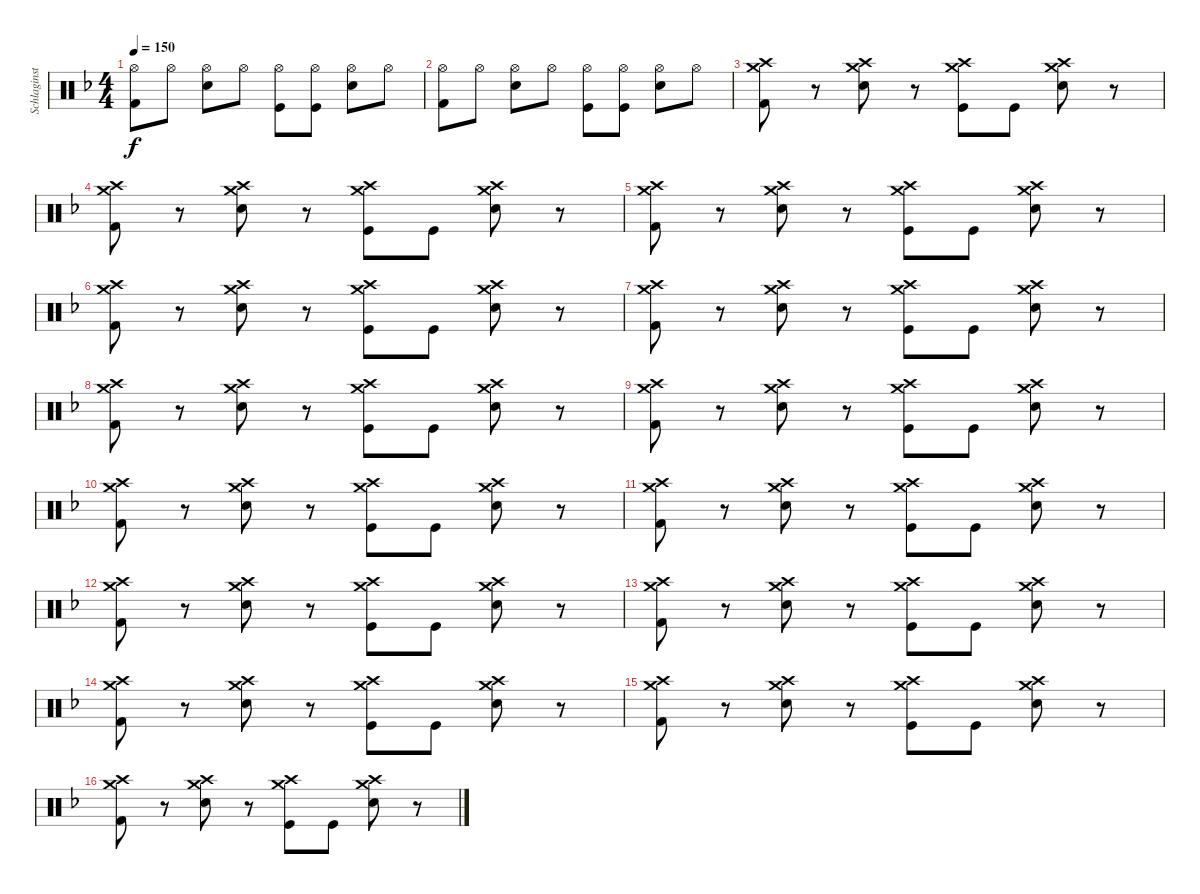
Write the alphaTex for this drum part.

\track ("Schlaginstrumente - Auswahl" "Schlaginst") {instrument percussion}
\staff {score}
\articulation defaults
\ts (4 4)
\tempo 150
\clef neutral
\ks f
("Hi-Hat (open)" "Kick (hit) 2").8{dy f} "Hi-Hat (open)".8 ("Hi-Hat (open)" "Snare (hit) 2").8 "Hi-Hat (open)".8 ("Hi-Hat (open)" "Kick (hit)").8 ("Kick (hit)" "Hi-Hat (open)").8 ("Hi-Hat (open)" "Snare (hit) 2").8 "Hi-Hat (open)".8 |
("Hi-Hat (open)" "Kick (hit) 2").8 "Hi-Hat (open)".8 ("Hi-Hat (open)" "Snare (hit) 2").8 "Hi-Hat (open)".8 ("Hi-Hat (open)" "Kick (hit)").8 ("Kick (hit)" "Hi-Hat (open)").8 ("Hi-Hat (open)" "Snare (hit) 2").8 "Hi-Hat (open)".8 |
("Crash medium (hit)" "Kick (hit) 2" "Crash high (hit)").8 r.8 ("Crash high (hit)" "Snare (hit) 2" "Crash medium (hit)").8 r.8 ("Crash medium (hit)" "Kick (hit)" "Crash high (hit)").8 "Kick (hit)".8 ("Crash high (hit)" "Snare (hit) 2" "Crash medium (hit)").8 r.8 |
("Crash medium (hit)" "Kick (hit) 2" "Crash high (hit)").8 r.8 ("Crash high (hit)" "Snare (hit) 2" "Crash medium (hit)").8 r.8 ("Crash medium (hit)" "Kick (hit)" "Crash high (hit)").8 "Kick (hit)".8 ("Crash high (hit)" "Snare (hit) 2" "Crash medium (hit)").8 r.8 |
("Crash medium (hit)" "Kick (hit) 2" "Crash high (hit)").8 r.8 ("Crash high (hit)" "Snare (hit) 2" "Crash medium (hit)").8 r.8 ("Crash medium (hit)" "Kick (hit)" "Crash high (hit)").8 "Kick (hit)".8 ("Crash high (hit)" "Snare (hit) 2" "Crash medium (hit)").8 r.8 |
("Crash medium (hit)" "Kick (hit) 2" "Crash high (hit)").8 r.8 ("Crash high (hit)" "Snare (hit) 2" "Crash medium (hit)").8 r.8 ("Crash medium (hit)" "Kick (hit)" "Crash high (hit)").8 "Kick (hit)".8 ("Crash high (hit)" "Snare (hit) 2" "Crash medium (hit)").8 r.8 |
("Crash medium (hit)" "Kick (hit) 2" "Crash high (hit)").8 r.8 ("Crash high (hit)" "Snare (hit) 2" "Crash medium (hit)").8 r.8 ("Crash medium (hit)" "Kick (hit)" "Crash high (hit)").8 "Kick (hit)".8 ("Crash high (hit)" "Snare (hit) 2" "Crash medium (hit)").8 r.8 |
("Crash medium (hit)" "Kick (hit) 2" "Crash high (hit)").8 r.8 ("Crash high (hit)" "Snare (hit) 2" "Crash medium (hit)").8 r.8 ("Crash medium (hit)" "Kick (hit)" "Crash high (hit)").8 "Kick (hit)".8 ("Crash high (hit)" "Snare (hit) 2" "Crash medium (hit)").8 r.8 |
("Crash medium (hit)" "Kick (hit) 2" "Crash high (hit)").8 r.8 ("Crash high (hit)" "Snare (hit) 2" "Crash medium (hit)").8 r.8 ("Crash medium (hit)" "Kick (hit)" "Crash high (hit)").8 "Kick (hit)".8 ("Crash high (hit)" "Snare (hit) 2" "Crash medium (hit)").8 r.8 |
("Crash medium (hit)" "Kick (hit) 2" "Crash high (hit)").8 r.8 ("Crash high (hit)" "Snare (hit) 2" "Crash medium (hit)").8 r.8 ("Crash medium (hit)" "Kick (hit)" "Crash high (hit)").8 "Kick (hit)".8 ("Crash high (hit)" "Snare (hit) 2" "Crash medium (hit)").8 r.8 |
("Crash medium (hit)" "Kick (hit) 2" "Crash high (hit)").8 r.8 ("Crash high (hit)" "Snare (hit) 2" "Crash medium (hit)").8 r.8 ("Crash medium (hit)" "Kick (hit)" "Crash high (hit)").8 "Kick (hit)".8 ("Crash high (hit)" "Snare (hit) 2" "Crash medium (hit)").8 r.8 |
("Crash medium (hit)" "Kick (hit) 2" "Crash high (hit)").8 r.8 ("Crash high (hit)" "Snare (hit) 2" "Crash medium (hit)").8 r.8 ("Crash medium (hit)" "Kick (hit)" "Crash high (hit)").8 "Kick (hit)".8 ("Crash high (hit)" "Snare (hit) 2" "Crash medium (hit)").8 r.8 |
("Crash medium (hit)" "Kick (hit) 2" "Crash high (hit)").8 r.8 ("Crash high (hit)" "Snare (hit) 2" "Crash medium (hit)").8 r.8 ("Crash medium (hit)" "Kick (hit)" "Crash high (hit)").8 "Kick (hit)".8 ("Crash high (hit)" "Snare (hit) 2" "Crash medium (hit)").8 r.8 |
("Crash medium (hit)" "Kick (hit) 2" "Crash high (hit)").8 r.8 ("Crash high (hit)" "Snare (hit) 2" "Crash medium (hit)").8 r.8 ("Crash medium (hit)" "Kick (hit)" "Crash high (hit)").8 "Kick (hit)".8 ("Crash high (hit)" "Snare (hit) 2" "Crash medium (hit)").8 r.8 |
("Crash medium (hit)" "Kick (hit) 2" "Crash high (hit)").8 r.8 ("Crash high (hit)" "Snare (hit) 2" "Crash medium (hit)").8 r.8 ("Crash medium (hit)" "Kick (hit)" "Crash high (hit)").8 "Kick (hit)".8 ("Crash high (hit)" "Snare (hit) 2" "Crash medium (hit)").8 r.8 |
("Crash medium (hit)" "Kick (hit) 2" "Crash high (hit)").8 r.8 ("Crash high (hit)" "Snare (hit) 2" "Crash medium (hit)").8 r.8 ("Crash medium (hit)" "Kick (hit)" "Crash high (hit)").8 "Kick (hit)".8 ("Crash high (hit)" "Snare (hit) 2" "Crash medium (hit)").8 r.8
